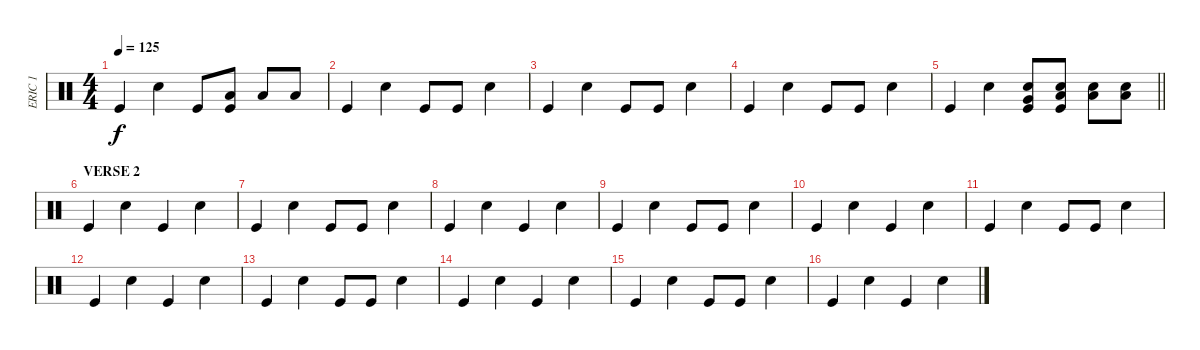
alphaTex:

\track ("ERIC 1" "ERIC 1") {instrument percussion}
\staff {score}
\articulation defaults
\ts (4 4)
\tempo 125
\clef neutral
\ks c "Kick (hit)".4{dy f} "Electric Snare (hit)".4 "Kick (hit)".8
("Low Tom (hit)" "Kick (hit)").8 "Low Floor Tom (hit)".8 "Low Floor Tom (hit)".8 |
"Kick (hit)".4 "Electric Snare (hit)".4 "Kick (hit)".8 "Kick (hit)".8 "Electric Snare (hit)".4 |
"Kick (hit)".4 "Electric Snare (hit)".4 "Kick (hit)".8 "Kick (hit)".8 "Electric Snare (hit)".4 |
"Kick (hit)".4 "Electric Snare (hit)".4 "Kick (hit)".8 "Kick (hit)".8 "Electric Snare (hit)".4 |
\barLineRight lightlight "Kick (hit)".4 "Electric Snare (hit)".4
("Electric Snare (hit)" "Very Low Tom (hit)" "Kick (hit)").8 ("Electric Snare (hit)" "Low Tom (hit)" "Kick (hit)").8 ("Electric Snare (hit)" "Low Floor Tom (hit)").8 ("Electric Snare (hit)" "Low Floor Tom (hit)").8 |
\section ("" "VERSE 2")
"Kick (hit)".4 "Electric Snare (hit)".4 "Kick (hit)".4 "Electric Snare (hit)".4 |
"Kick (hit)".4 "Electric Snare (hit)".4 "Kick (hit)".8 "Kick (hit)".8 "Electric Snare (hit)".4 |
"Kick (hit)".4 "Electric Snare (hit)".4 "Kick (hit)".4 "Electric Snare (hit)".4 |
"Kick (hit)".4 "Electric Snare (hit)".4 "Kick (hit)".8 "Kick (hit)".8 "Electric Snare (hit)".4 |
"Kick (hit)".4 "Electric Snare (hit)".4 "Kick (hit)".4 "Electric Snare (hit)".4 |
"Kick (hit)".4 "Electric Snare (hit)".4 "Kick (hit)".8 "Kick (hit)".8 "Electric Snare (hit)".4 |
"Kick (hit)".4 "Electric Snare (hit)".4 "Kick (hit)".4 "Electric Snare (hit)".4 |
"Kick (hit)".4 "Electric Snare (hit)".4 "Kick (hit)".8 "Kick (hit)".8 "Electric Snare (hit)".4 |
"Kick (hit)".4 "Electric Snare (hit)".4 "Kick (hit)".4 "Electric Snare (hit)".4 |
"Kick (hit)".4 "Electric Snare (hit)".4 "Kick (hit)".8 "Kick (hit)".8 "Electric Snare (hit)".4 |
"Kick (hit)".4 "Electric Snare (hit)".4 "Kick (hit)".4 "Electric Snare (hit)".4
